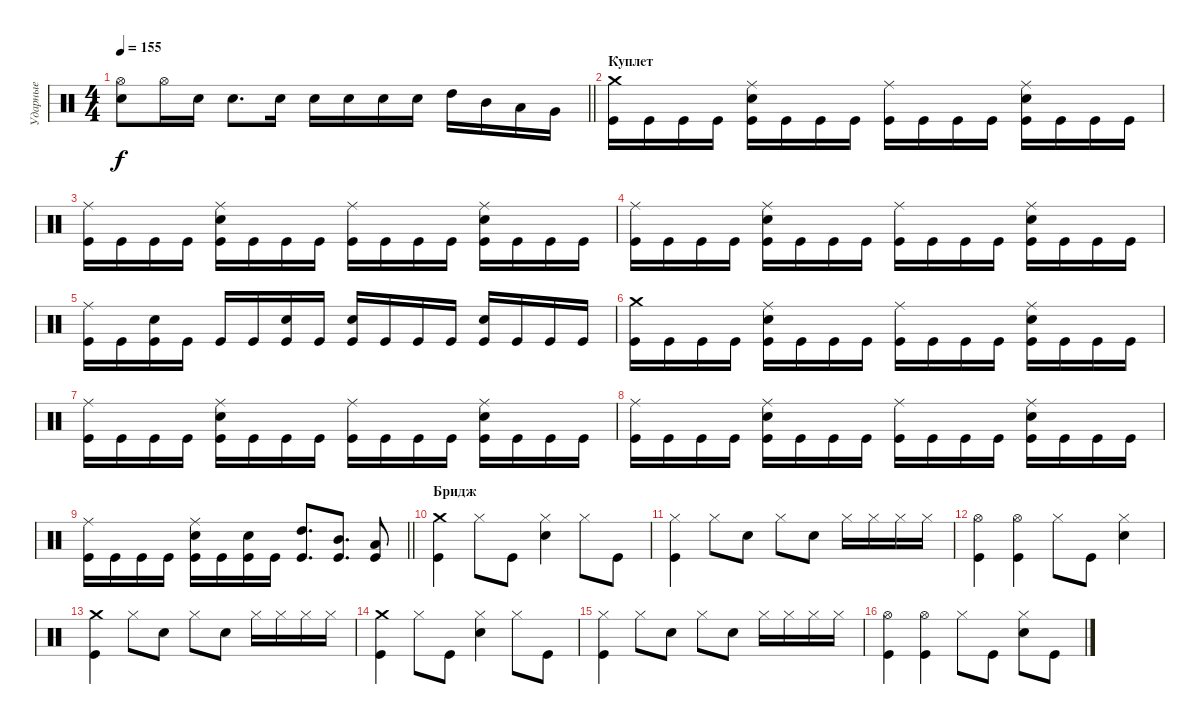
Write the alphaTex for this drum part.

\track ("Ударные" "Ударные") {instrument percussion}
\staff {score}
\articulation defaults
\ts (4 4)
\tempo 155
\clef neutral
\barLineRight lightlight
\ks c
("Snare (hit) 2" "Hi-Hat (open)").8{dy f} "Hi-Hat (open)".16 "Snare (hit) 2".16 "Snare (hit) 2".8{d} "Snare (hit) 2".16 "Snare (hit) 2".16 "Snare (hit) 2".16 "Snare (hit) 2".16 "Snare (hit) 2".16 "High Tom (hit)".16 "Mid Tom (hit)".16 "Low Tom (hit)".16 "Very Low Tom (hit)".16 |
\section ("" "Куплет")
("Kick (hit)" "Crash medium (hit)").16 "Kick (hit)".16 "Kick (hit)".16 "Kick (hit)".16 ("Kick (hit)" "Snare (hit) 2" "Ride (middle)").16 "Kick (hit)".16 "Kick (hit)".16 "Kick (hit)".16 ("Kick (hit)" "Ride (middle)").16 "Kick (hit)".16 "Kick (hit)".16 "Kick (hit)".16 ("Kick (hit)" "Snare (hit) 2" "Ride (middle)").16 "Kick (hit)".16 "Kick (hit)".16 "Kick (hit)".16 |
("Kick (hit)" "Ride (middle)").16 "Kick (hit)".16 "Kick (hit)".16 "Kick (hit)".16 ("Kick (hit)" "Snare (hit) 2" "Ride (middle)").16 "Kick (hit)".16 "Kick (hit)".16 "Kick (hit)".16 ("Kick (hit)" "Ride (middle)").16 "Kick (hit)".16 "Kick (hit)".16 "Kick (hit)".16 ("Kick (hit)" "Snare (hit) 2" "Ride (middle)").16 "Kick (hit)".16 "Kick (hit)".16 "Kick (hit)".16 |
("Kick (hit)" "Ride (middle)").16 "Kick (hit)".16 "Kick (hit)".16 "Kick (hit)".16 ("Kick (hit)" "Snare (hit) 2" "Ride (middle)").16 "Kick (hit)".16 "Kick (hit)".16 "Kick (hit)".16 ("Kick (hit)" "Ride (middle)").16 "Kick (hit)".16 "Kick (hit)".16 "Kick (hit)".16 ("Kick (hit)" "Snare (hit) 2" "Ride (middle)").16 "Kick (hit)".16 "Kick (hit)".16 "Kick (hit)".16 |
("Kick (hit)" "Ride (middle)").16 "Kick (hit)".16 ("Kick (hit)" "Snare (hit) 2").16 "Kick (hit)".16 "Kick (hit)".16 "Kick (hit)".16 ("Kick (hit)" "Snare (hit) 2").16 "Kick (hit)".16 ("Kick (hit)" "Snare (hit) 2").16 "Kick (hit)".16 "Kick (hit)".16 "Kick (hit)".16 ("Kick (hit)" "Snare (hit) 2").16 "Kick (hit)".16 "Kick (hit)".16 "Kick (hit)".16 |
("Kick (hit)" "Crash medium (hit)").16 "Kick (hit)".16 "Kick (hit)".16 "Kick (hit)".16 ("Kick (hit)" "Snare (hit) 2" "Ride (middle)").16 "Kick (hit)".16 "Kick (hit)".16 "Kick (hit)".16 ("Kick (hit)" "Ride (middle)").16 "Kick (hit)".16 "Kick (hit)".16 "Kick (hit)".16 ("Kick (hit)" "Snare (hit) 2" "Ride (middle)").16 "Kick (hit)".16 "Kick (hit)".16 "Kick (hit)".16 |
("Kick (hit)" "Ride (middle)").16 "Kick (hit)".16 "Kick (hit)".16 "Kick (hit)".16 ("Kick (hit)" "Snare (hit) 2" "Ride (middle)").16 "Kick (hit)".16 "Kick (hit)".16 "Kick (hit)".16 ("Kick (hit)" "Ride (middle)").16 "Kick (hit)".16 "Kick (hit)".16 "Kick (hit)".16 ("Kick (hit)" "Snare (hit) 2" "Ride (middle)").16 "Kick (hit)".16 "Kick (hit)".16 "Kick (hit)".16 |
("Kick (hit)" "Ride (middle)").16 "Kick (hit)".16 "Kick (hit)".16 "Kick (hit)".16 ("Kick (hit)" "Snare (hit) 2" "Ride (middle)").16 "Kick (hit)".16 "Kick (hit)".16 "Kick (hit)".16 ("Kick (hit)" "Ride (middle)").16 "Kick (hit)".16 "Kick (hit)".16 "Kick (hit)".16 ("Kick (hit)" "Snare (hit) 2" "Ride (middle)").16 "Kick (hit)".16 "Kick (hit)".16 "Kick (hit)".16 |
\barLineRight lightlight
("Kick (hit)" "Ride (middle)").16 "Kick (hit)".16 "Kick (hit)".16 "Kick (hit)".16 ("Kick (hit)" "Snare (hit) 2" "Ride (middle)").16 "Kick (hit)".16 ("Kick (hit)" "Snare (hit) 2").16 "Kick (hit)".16 ("Kick (hit)" "High Tom (hit)").8{d} ("Kick (hit)" "Mid Tom (hit)").8{d} ("Kick (hit)" "Low Tom (hit)").8 |
\section ("" "Бридж")
("Kick (hit)" "Crash medium (hit)").4 "Hi-Hat (closed)".8 "Kick (hit)".8 ("Snare (hit) 2" "Hi-Hat (closed)").4 "Hi-Hat (closed)".8 "Kick (hit)".8 |
("Kick (hit)" "Hi-Hat (closed)").4 "Hi-Hat (closed)".8 "Snare (hit) 2".8 "Hi-Hat (closed)".8 "Snare (hit) 2".8 "Hi-Hat (closed)".16 "Hi-Hat (closed)".16 "Hi-Hat (closed)".16 "Hi-Hat (closed)".16 |
("Kick (hit)" "Hi-Hat (open)").4 ("Kick (hit)" "Hi-Hat (open)").4 "Hi-Hat (closed)".8 "Kick (hit)".8 ("Snare (hit) 2" "Hi-Hat (closed)").4 |
("Kick (hit)" "Crash medium (hit)").4 "Hi-Hat (closed)".8 "Snare (hit) 2".8 "Hi-Hat (closed)".8 "Snare (hit) 2".8 "Hi-Hat (closed)".16 "Hi-Hat (closed)".16 "Hi-Hat (closed)".16 "Hi-Hat (closed)".16 |
("Kick (hit)" "Crash medium (hit)").4 "Hi-Hat (closed)".8 "Kick (hit)".8 ("Snare (hit) 2" "Hi-Hat (closed)").4 "Hi-Hat (closed)".8 "Kick (hit)".8 |
("Kick (hit)" "Hi-Hat (closed)").4 "Hi-Hat (closed)".8 "Snare (hit) 2".8 "Hi-Hat (closed)".8 "Snare (hit) 2".8 "Hi-Hat (closed)".16 "Hi-Hat (closed)".16 "Hi-Hat (closed)".16 "Hi-Hat (closed)".16 |
("Kick (hit)" "Hi-Hat (open)").4 ("Kick (hit)" "Hi-Hat (open)").4 "Hi-Hat (closed)".8 "Kick (hit)".8 ("Snare (hit) 2" "Hi-Hat (closed)").8 "Kick (hit)".8
